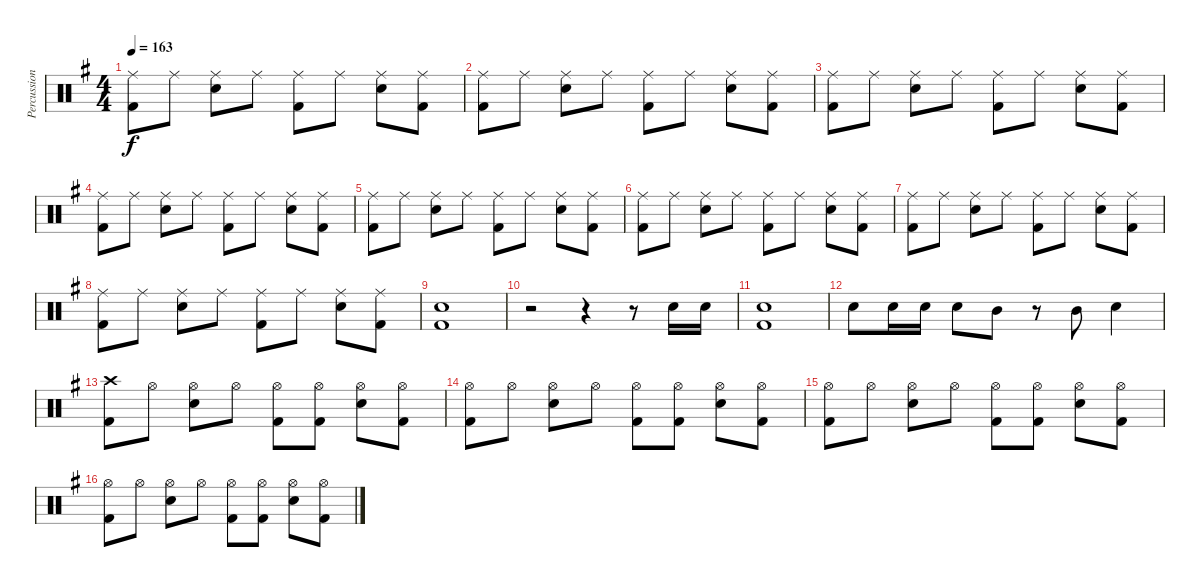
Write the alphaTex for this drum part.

\track ("Percussion" "Percussion") {instrument percussion}
\staff {score}
\articulation defaults
\ts (4 4)
\tempo 163
\clef neutral
\ks g
("Ride (middle)" "Kick (hit) 2").8{dy f} "Ride (middle)".8 ("Ride (middle)" "Snare (hit) 2").8 "Ride (middle)".8 ("Ride (middle)" "Kick (hit) 2").8 "Ride (middle)".8 ("Ride (middle)" "Snare (hit) 2").8 ("Ride (middle)" "Kick (hit) 2").8 |
("Ride (middle)" "Kick (hit) 2").8 "Ride (middle)".8 ("Ride (middle)" "Snare (hit) 2").8 "Ride (middle)".8 ("Ride (middle)" "Kick (hit) 2").8 "Ride (middle)".8 ("Ride (middle)" "Snare (hit) 2").8 ("Ride (middle)" "Kick (hit) 2").8 |
("Ride (middle)" "Kick (hit) 2").8 "Ride (middle)".8 ("Ride (middle)" "Snare (hit) 2").8 "Ride (middle)".8 ("Ride (middle)" "Kick (hit) 2").8 "Ride (middle)".8 ("Ride (middle)" "Snare (hit) 2").8 ("Ride (middle)" "Kick (hit) 2").8 |
("Ride (middle)" "Kick (hit) 2").8 "Ride (middle)".8 ("Ride (middle)" "Snare (hit) 2").8 "Ride (middle)".8 ("Ride (middle)" "Kick (hit) 2").8 "Ride (middle)".8 ("Ride (middle)" "Snare (hit) 2").8 ("Ride (middle)" "Kick (hit) 2").8 |
("Ride (middle)" "Kick (hit) 2").8 "Ride (middle)".8 ("Ride (middle)" "Snare (hit) 2").8 "Ride (middle)".8 ("Ride (middle)" "Kick (hit) 2").8 "Ride (middle)".8 ("Ride (middle)" "Snare (hit) 2").8 ("Ride (middle)" "Kick (hit) 2").8 |
("Ride (middle)" "Kick (hit) 2").8 "Ride (middle)".8 ("Ride (middle)" "Snare (hit) 2").8 "Ride (middle)".8 ("Ride (middle)" "Kick (hit) 2").8 "Ride (middle)".8 ("Ride (middle)" "Snare (hit) 2").8 ("Ride (middle)" "Kick (hit) 2").8 |
("Ride (middle)" "Kick (hit) 2").8 "Ride (middle)".8 ("Ride (middle)" "Snare (hit) 2").8 "Ride (middle)".8 ("Ride (middle)" "Kick (hit) 2").8 "Ride (middle)".8 ("Ride (middle)" "Snare (hit) 2").8 ("Ride (middle)" "Kick (hit) 2").8 |
("Ride (middle)" "Kick (hit) 2").8 "Ride (middle)".8 ("Ride (middle)" "Snare (hit) 2").8 "Ride (middle)".8 ("Ride (middle)" "Kick (hit) 2").8 "Ride (middle)".8 ("Ride (middle)" "Snare (hit) 2").8 ("Ride (middle)" "Kick (hit) 2").8 |
("Snare (hit) 2" "Kick (hit) 2").1 |
r.2 r.4 r.8 "Snare (hit) 2".16 "Snare (hit) 2".16 |
("Snare (hit) 2" "Kick (hit) 2").1 |
"Snare (hit) 2".8 "Snare (hit) 2".16 "Snare (hit) 2".16 "Snare (hit) 2".8 "Mid Tom (hit)".8 r.8 "Mid Tom (hit)".8 "Snare (hit) 2".4 |
("Crash high (hit)" "Kick (hit) 2").8 "Hi-Hat (open)".8 ("Hi-Hat (open)" "Snare (hit) 2").8 "Hi-Hat (open)".8 ("Hi-Hat (open)" "Kick (hit) 2").8 ("Hi-Hat (open)" "Kick (hit) 2").8 ("Hi-Hat (open)" "Snare (hit) 2").8 ("Hi-Hat (open)" "Kick (hit) 2").8 |
("Hi-Hat (open)" "Kick (hit) 2").8 "Hi-Hat (open)".8 ("Hi-Hat (open)" "Snare (hit) 2").8 "Hi-Hat (open)".8 ("Hi-Hat (open)" "Kick (hit) 2").8 ("Hi-Hat (open)" "Kick (hit) 2").8 ("Hi-Hat (open)" "Snare (hit) 2").8 ("Hi-Hat (open)" "Kick (hit) 2").8 |
("Hi-Hat (open)" "Kick (hit) 2").8 "Hi-Hat (open)".8 ("Hi-Hat (open)" "Snare (hit) 2").8 "Hi-Hat (open)".8 ("Hi-Hat (open)" "Kick (hit) 2").8 ("Hi-Hat (open)" "Kick (hit) 2").8 ("Hi-Hat (open)" "Snare (hit) 2").8 ("Hi-Hat (open)" "Kick (hit) 2").8 |
("Hi-Hat (open)" "Kick (hit) 2").8 "Hi-Hat (open)".8 ("Hi-Hat (open)" "Snare (hit) 2").8 "Hi-Hat (open)".8 ("Hi-Hat (open)" "Kick (hit) 2").8 ("Hi-Hat (open)" "Kick (hit) 2").8 ("Hi-Hat (open)" "Snare (hit) 2").8 ("Hi-Hat (open)" "Kick (hit) 2").8
